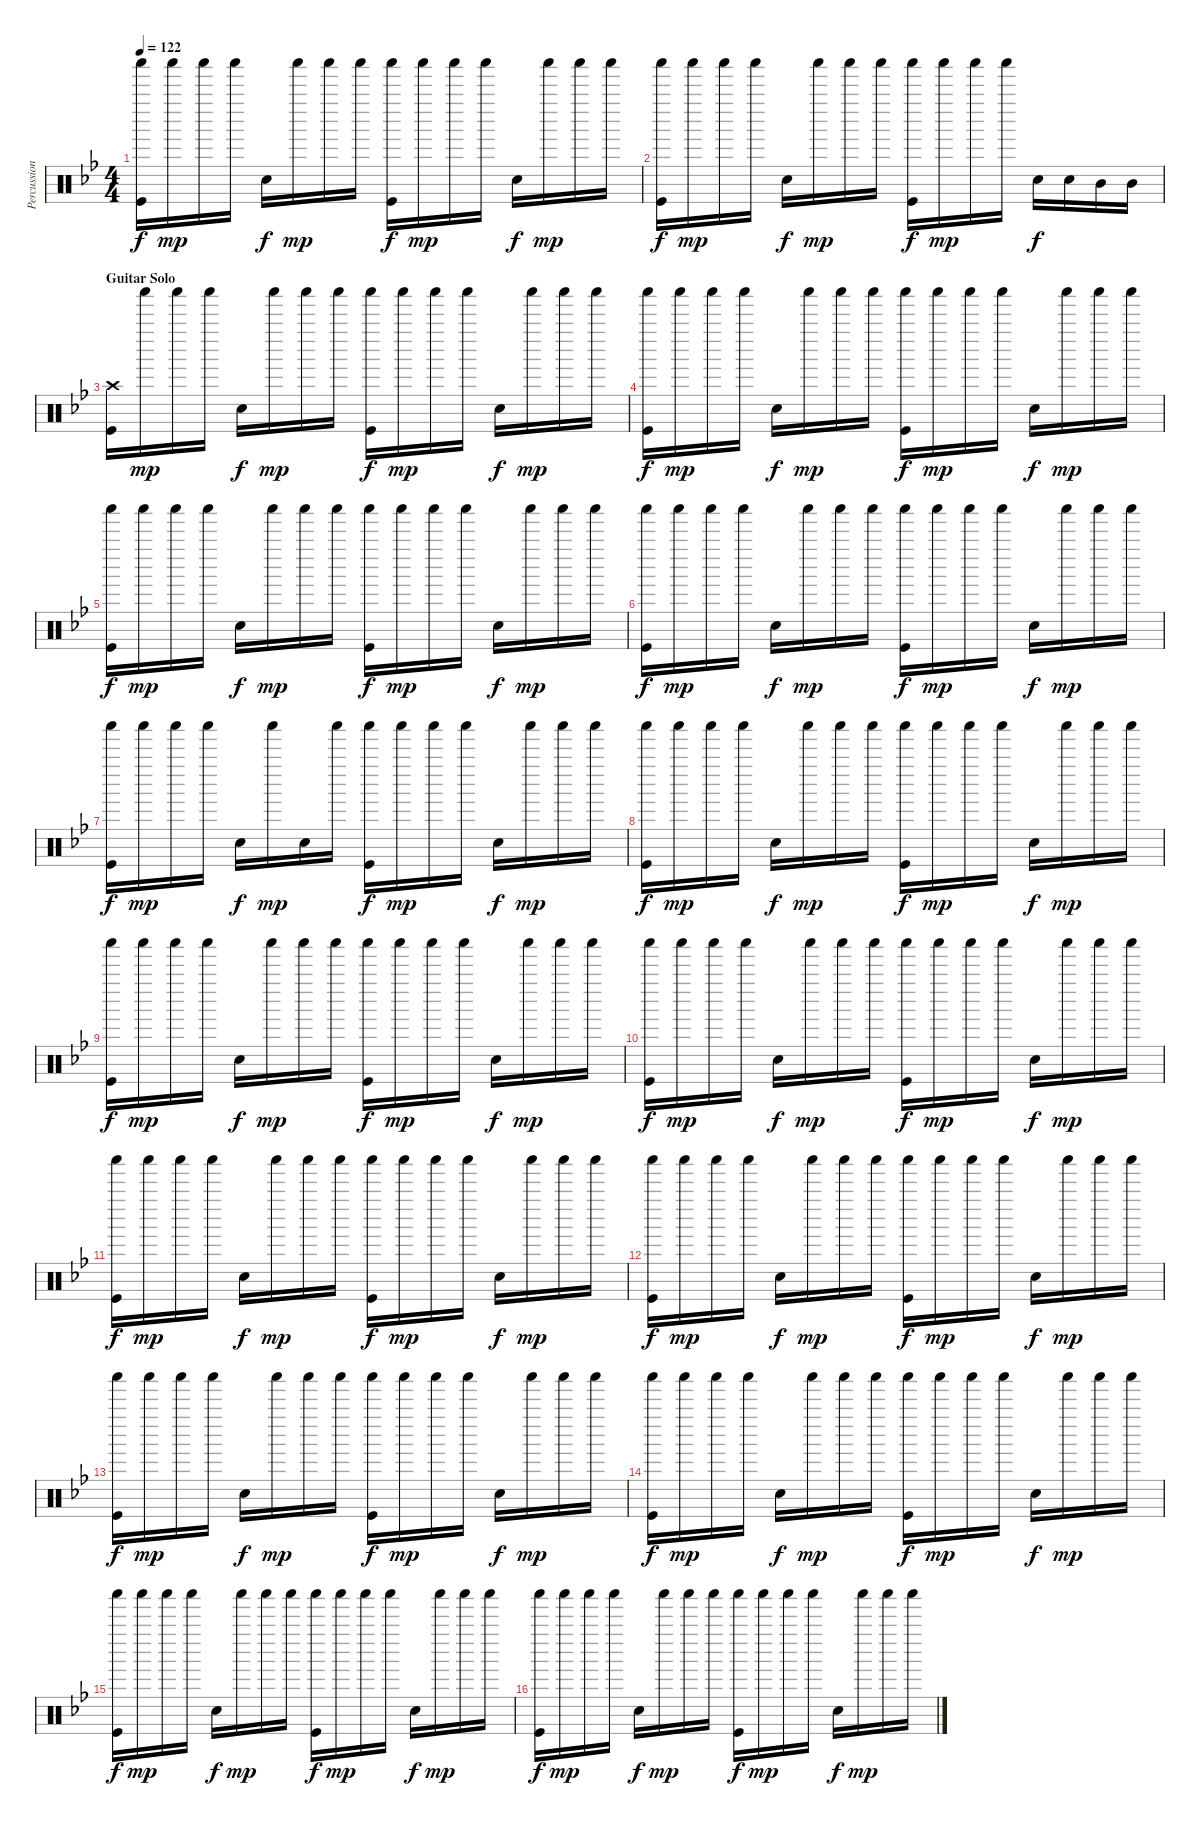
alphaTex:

\track ("Percussions" "Percussion") {instrument percussion}
\staff {score}
\articulation defaults
\ts (4 4)
\tempo 122
\clef neutral
\ks bb
("Shaker (hit)" "Kick (hit)").16{dy f} "Shaker (hit)".16{dy mp} "Shaker (hit)".16 "Shaker (hit)".16 "Snare (hit) 2".16{dy f} "Shaker (hit)".16{dy mp} "Shaker (hit)".16 "Shaker (hit)".16 ("Shaker (hit)" "Kick (hit)").16{dy f} "Shaker (hit)".16{dy mp} "Shaker (hit)".16 "Shaker (hit)".16 "Snare (hit) 2".16{dy f} "Shaker (hit)".16{dy mp} "Shaker (hit)".16 "Shaker (hit)".16 |
("Shaker (hit)" "Kick (hit)").16{dy f} "Shaker (hit)".16{dy mp} "Shaker (hit)".16 "Shaker (hit)".16 "Snare (hit) 2".16{dy f} "Shaker (hit)".16{dy mp} "Shaker (hit)".16 "Shaker (hit)".16 ("Shaker (hit)" "Kick (hit)").16{dy f} "Shaker (hit)".16{dy mp} "Shaker (hit)".16 "Shaker (hit)".16 "Snare (hit) 2".16{dy f} "Snare (hit) 2".16 "Mid Tom (hit)".16 "Mid Tom (hit)".16 |
\section ("" "Guitar Solo")
("Crash high (hit)" "Kick (hit)").16 "Shaker (hit)".16{dy mp} "Shaker (hit)".16 "Shaker (hit)".16 "Snare (hit) 2".16{dy f} "Shaker (hit)".16{dy mp} "Shaker (hit)".16 "Shaker (hit)".16 ("Shaker (hit)" "Kick (hit)").16{dy f} "Shaker (hit)".16{dy mp} "Shaker (hit)".16 "Shaker (hit)".16 "Snare (hit) 2".16{dy f} "Shaker (hit)".16{dy mp} "Shaker (hit)".16 "Shaker (hit)".16 |
("Shaker (hit)" "Kick (hit)").16{dy f} "Shaker (hit)".16{dy mp} "Shaker (hit)".16 "Shaker (hit)".16 "Snare (hit) 2".16{dy f} "Shaker (hit)".16{dy mp} "Shaker (hit)".16 "Shaker (hit)".16 ("Shaker (hit)" "Kick (hit)").16{dy f} "Shaker (hit)".16{dy mp} "Shaker (hit)".16 "Shaker (hit)".16 "Snare (hit) 2".16{dy f} "Shaker (hit)".16{dy mp} "Shaker (hit)".16 "Shaker (hit)".16 |
("Shaker (hit)" "Kick (hit)").16{dy f} "Shaker (hit)".16{dy mp} "Shaker (hit)".16 "Shaker (hit)".16 "Snare (hit) 2".16{dy f} "Shaker (hit)".16{dy mp} "Shaker (hit)".16 "Shaker (hit)".16 ("Shaker (hit)" "Kick (hit)").16{dy f} "Shaker (hit)".16{dy mp} "Shaker (hit)".16 "Shaker (hit)".16 "Snare (hit) 2".16{dy f} "Shaker (hit)".16{dy mp} "Shaker (hit)".16 "Shaker (hit)".16 |
("Shaker (hit)" "Kick (hit)").16{dy f} "Shaker (hit)".16{dy mp} "Shaker (hit)".16 "Shaker (hit)".16 "Snare (hit) 2".16{dy f} "Shaker (hit)".16{dy mp} "Shaker (hit)".16 "Shaker (hit)".16 ("Shaker (hit)" "Kick (hit)").16{dy f} "Shaker (hit)".16{dy mp} "Shaker (hit)".16 "Shaker (hit)".16 "Snare (hit) 2".16{dy f} "Shaker (hit)".16{dy mp} "Shaker (hit)".16 "Shaker (hit)".16 |
("Shaker (hit)" "Kick (hit)").16{dy f} "Shaker (hit)".16{dy mp} "Shaker (hit)".16 "Shaker (hit)".16 "Snare (hit) 2".16{dy f} "Shaker (hit)".16{dy mp} "Snare (hit) 2".16 "Shaker (hit)".16 ("Shaker (hit)" "Kick (hit)").16{dy f} "Shaker (hit)".16{dy mp} "Shaker (hit)".16 "Shaker (hit)".16 "Snare (hit) 2".16{dy f} "Shaker (hit)".16{dy mp} "Shaker (hit)".16 "Shaker (hit)".16 |
("Shaker (hit)" "Kick (hit)").16{dy f} "Shaker (hit)".16{dy mp} "Shaker (hit)".16 "Shaker (hit)".16 "Snare (hit) 2".16{dy f} "Shaker (hit)".16{dy mp} "Shaker (hit)".16 "Shaker (hit)".16 ("Shaker (hit)" "Kick (hit)").16{dy f} "Shaker (hit)".16{dy mp} "Shaker (hit)".16 "Shaker (hit)".16 "Snare (hit) 2".16{dy f} "Shaker (hit)".16{dy mp} "Shaker (hit)".16 "Shaker (hit)".16 |
("Shaker (hit)" "Kick (hit)").16{dy f} "Shaker (hit)".16{dy mp} "Shaker (hit)".16 "Shaker (hit)".16 "Snare (hit) 2".16{dy f} "Shaker (hit)".16{dy mp} "Shaker (hit)".16 "Shaker (hit)".16 ("Shaker (hit)" "Kick (hit)").16{dy f} "Shaker (hit)".16{dy mp} "Shaker (hit)".16 "Shaker (hit)".16 "Snare (hit) 2".16{dy f} "Shaker (hit)".16{dy mp} "Shaker (hit)".16 "Shaker (hit)".16 |
("Shaker (hit)" "Kick (hit)").16{dy f} "Shaker (hit)".16{dy mp} "Shaker (hit)".16 "Shaker (hit)".16 "Snare (hit) 2".16{dy f} "Shaker (hit)".16{dy mp} "Shaker (hit)".16 "Shaker (hit)".16 ("Shaker (hit)" "Kick (hit)").16{dy f} "Shaker (hit)".16{dy mp} "Shaker (hit)".16 "Shaker (hit)".16 "Snare (hit) 2".16{dy f} "Shaker (hit)".16{dy mp} "Shaker (hit)".16 "Shaker (hit)".16 |
("Shaker (hit)" "Kick (hit)").16{dy f} "Shaker (hit)".16{dy mp} "Shaker (hit)".16 "Shaker (hit)".16 "Snare (hit) 2".16{dy f} "Shaker (hit)".16{dy mp} "Shaker (hit)".16 "Shaker (hit)".16 ("Shaker (hit)" "Kick (hit)").16{dy f} "Shaker (hit)".16{dy mp} "Shaker (hit)".16 "Shaker (hit)".16 "Snare (hit) 2".16{dy f} "Shaker (hit)".16{dy mp} "Shaker (hit)".16 "Shaker (hit)".16 |
("Shaker (hit)" "Kick (hit)").16{dy f} "Shaker (hit)".16{dy mp} "Shaker (hit)".16 "Shaker (hit)".16 "Snare (hit) 2".16{dy f} "Shaker (hit)".16{dy mp} "Shaker (hit)".16 "Shaker (hit)".16 ("Shaker (hit)" "Kick (hit)").16{dy f} "Shaker (hit)".16{dy mp} "Shaker (hit)".16 "Shaker (hit)".16 "Snare (hit) 2".16{dy f} "Shaker (hit)".16{dy mp} "Shaker (hit)".16 "Shaker (hit)".16 |
("Shaker (hit)" "Kick (hit)").16{dy f} "Shaker (hit)".16{dy mp} "Shaker (hit)".16 "Shaker (hit)".16 "Snare (hit) 2".16{dy f} "Shaker (hit)".16{dy mp} "Shaker (hit)".16 "Shaker (hit)".16 ("Shaker (hit)" "Kick (hit)").16{dy f} "Shaker (hit)".16{dy mp} "Shaker (hit)".16 "Shaker (hit)".16 "Snare (hit) 2".16{dy f} "Shaker (hit)".16{dy mp} "Shaker (hit)".16 "Shaker (hit)".16 |
("Shaker (hit)" "Kick (hit)").16{dy f} "Shaker (hit)".16{dy mp} "Shaker (hit)".16 "Shaker (hit)".16 "Snare (hit) 2".16{dy f} "Shaker (hit)".16{dy mp} "Shaker (hit)".16 "Shaker (hit)".16 ("Shaker (hit)" "Kick (hit)").16{dy f} "Shaker (hit)".16{dy mp} "Shaker (hit)".16 "Shaker (hit)".16 "Snare (hit) 2".16{dy f} "Shaker (hit)".16{dy mp} "Shaker (hit)".16 "Shaker (hit)".16 |
("Shaker (hit)" "Kick (hit)").16{dy f} "Shaker (hit)".16{dy mp} "Shaker (hit)".16 "Shaker (hit)".16 "Snare (hit) 2".16{dy f} "Shaker (hit)".16{dy mp} "Shaker (hit)".16 "Shaker (hit)".16 ("Shaker (hit)" "Kick (hit)").16{dy f} "Shaker (hit)".16{dy mp} "Shaker (hit)".16 "Shaker (hit)".16 "Snare (hit) 2".16{dy f} "Shaker (hit)".16{dy mp} "Shaker (hit)".16 "Shaker (hit)".16 |
("Shaker (hit)" "Kick (hit)").16{dy f} "Shaker (hit)".16{dy mp} "Shaker (hit)".16 "Shaker (hit)".16 "Snare (hit) 2".16{dy f} "Shaker (hit)".16{dy mp} "Shaker (hit)".16 "Shaker (hit)".16 ("Shaker (hit)" "Kick (hit)").16{dy f} "Shaker (hit)".16{dy mp} "Shaker (hit)".16 "Shaker (hit)".16 "Snare (hit) 2".16{dy f} "Shaker (hit)".16{dy mp} "Shaker (hit)".16 "Shaker (hit)".16
